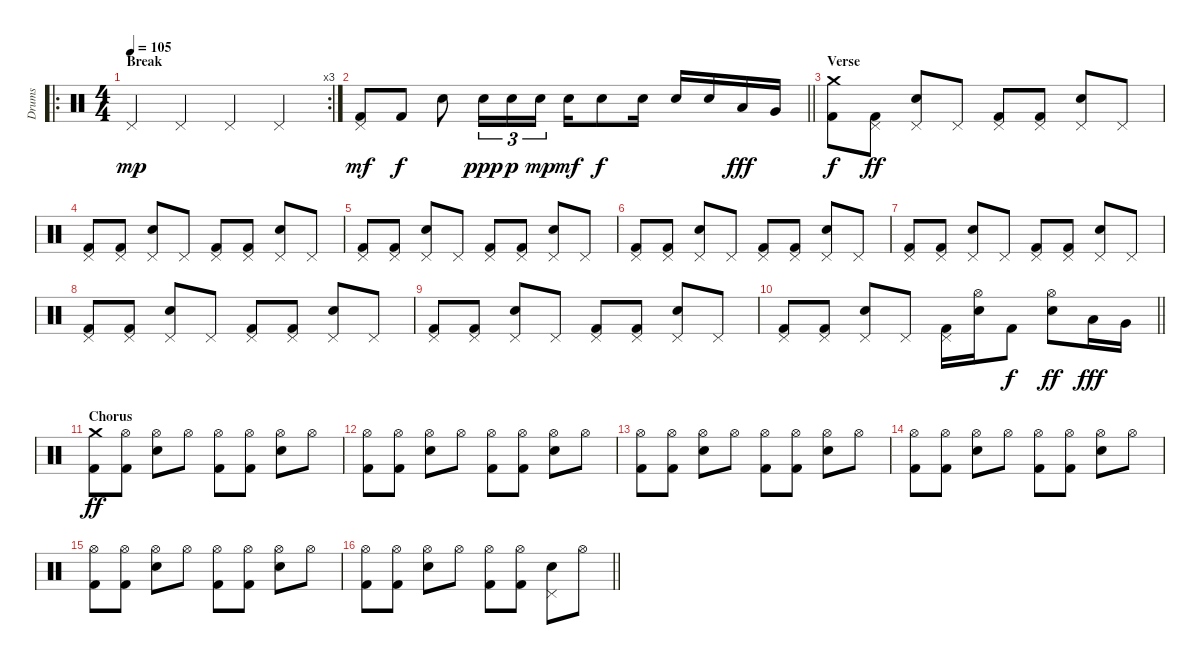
\track ("Drums" "Drums") {instrument percussion}
\staff {score}
\articulation defaults
\ro
\rc 3
\ts (4 4)
\section ("" "Break")
\tempo 105
\clef neutral
\ks c "Pedal Hi-Hat (hit)".4{dy mp} "Pedal Hi-Hat (hit)".4 "Pedal Hi-Hat (hit)".4 "Pedal Hi-Hat (hit)".4
|
\barLineRight lightlight
("Pedal Hi-Hat (hit)" "Kick (hit) 2").8{dy mf} "Kick (hit) 2".8{dy f} "Electric Snare (hit)".8 "Electric Snare (hit)".16{tu (3 2) dy ppp} "Electric Snare (hit)".16{tu (3 2) dy p} "Electric Snare (hit)".16{tu (3 2) dy mp} "Electric Snare (hit)".16{dy mf} "Electric Snare (hit)".8{dy f} "Electric Snare (hit)".16 "Electric Snare (hit)".16 "Electric Snare (hit)".16 "Low Tom (hit)".16{dy fff} "Very Low Tom (hit)".16 |
\section ("" "Verse")
("Crash medium (hit)" "Kick (hit) 2").8{dy f} ("Pedal Hi-Hat (hit)" "Kick (hit) 2").8{dy ff} ("Pedal Hi-Hat (hit)" "Electric Snare (hit)").8 "Pedal Hi-Hat (hit)".8 ("Pedal Hi-Hat (hit)" "Kick (hit) 2").8 ("Pedal Hi-Hat (hit)" "Kick (hit) 2").8 ("Pedal Hi-Hat (hit)" "Electric Snare (hit)").8 "Pedal Hi-Hat (hit)".8 |
("Pedal Hi-Hat (hit)" "Kick (hit) 2").8 ("Pedal Hi-Hat (hit)" "Kick (hit) 2").8 ("Pedal Hi-Hat (hit)" "Electric Snare (hit)").8 "Pedal Hi-Hat (hit)".8 ("Pedal Hi-Hat (hit)" "Kick (hit) 2").8 ("Pedal Hi-Hat (hit)" "Kick (hit) 2").8 ("Pedal Hi-Hat (hit)" "Electric Snare (hit)").8 "Pedal Hi-Hat (hit)".8 |
("Pedal Hi-Hat (hit)" "Kick (hit) 2").8 ("Pedal Hi-Hat (hit)" "Kick (hit) 2").8 ("Pedal Hi-Hat (hit)" "Electric Snare (hit)").8 "Pedal Hi-Hat (hit)".8 ("Pedal Hi-Hat (hit)" "Kick (hit) 2").8 ("Pedal Hi-Hat (hit)" "Kick (hit) 2").8 ("Pedal Hi-Hat (hit)" "Electric Snare (hit)").8 "Pedal Hi-Hat (hit)".8 |
("Pedal Hi-Hat (hit)" "Kick (hit) 2").8 ("Pedal Hi-Hat (hit)" "Kick (hit) 2").8 ("Pedal Hi-Hat (hit)" "Electric Snare (hit)").8 "Pedal Hi-Hat (hit)".8 ("Pedal Hi-Hat (hit)" "Kick (hit) 2").8 ("Pedal Hi-Hat (hit)" "Kick (hit) 2").8 ("Pedal Hi-Hat (hit)" "Electric Snare (hit)").8 "Pedal Hi-Hat (hit)".8 |
("Pedal Hi-Hat (hit)" "Kick (hit) 2").8 ("Pedal Hi-Hat (hit)" "Kick (hit) 2").8 ("Pedal Hi-Hat (hit)" "Electric Snare (hit)").8 "Pedal Hi-Hat (hit)".8 ("Pedal Hi-Hat (hit)" "Kick (hit) 2").8 ("Pedal Hi-Hat (hit)" "Kick (hit) 2").8 ("Pedal Hi-Hat (hit)" "Electric Snare (hit)").8 "Pedal Hi-Hat (hit)".8 |
("Pedal Hi-Hat (hit)" "Kick (hit) 2").8 ("Pedal Hi-Hat (hit)" "Kick (hit) 2").8 ("Pedal Hi-Hat (hit)" "Electric Snare (hit)").8 "Pedal Hi-Hat (hit)".8 ("Pedal Hi-Hat (hit)" "Kick (hit) 2").8 ("Pedal Hi-Hat (hit)" "Kick (hit) 2").8 ("Pedal Hi-Hat (hit)" "Electric Snare (hit)").8 "Pedal Hi-Hat (hit)".8 |
("Pedal Hi-Hat (hit)" "Kick (hit) 2").8 ("Pedal Hi-Hat (hit)" "Kick (hit) 2").8 ("Pedal Hi-Hat (hit)" "Electric Snare (hit)").8 "Pedal Hi-Hat (hit)".8 ("Pedal Hi-Hat (hit)" "Kick (hit) 2").8 ("Pedal Hi-Hat (hit)" "Kick (hit) 2").8 ("Pedal Hi-Hat (hit)" "Electric Snare (hit)").8 "Pedal Hi-Hat (hit)".8 |
\barLineRight lightlight
("Pedal Hi-Hat (hit)" "Kick (hit) 2").8 ("Pedal Hi-Hat (hit)" "Kick (hit) 2").8 ("Pedal Hi-Hat (hit)" "Electric Snare (hit)").8 "Pedal Hi-Hat (hit)".8 ("Pedal Hi-Hat (hit)" "Kick (hit) 2").16 ("Hi-Hat (open)" "Electric Snare (hit)").16 "Kick (hit) 2".8{dy f} ("Hi-Hat (open)" "Electric Snare (hit)").8{dy ff} "Low Tom (hit)".16{dy fff} "Very Low Tom (hit)".16 |
\section ("" "Chorus")
("Crash medium (hit)" "Kick (hit) 2").8{dy ff} ("Hi-Hat (open)" "Kick (hit) 2").8 ("Hi-Hat (open)" "Electric Snare (hit)").8 "Hi-Hat (open)".8 ("Hi-Hat (open)" "Kick (hit) 2").8 ("Hi-Hat (open)" "Kick (hit) 2").8 ("Hi-Hat (open)" "Electric Snare (hit)").8 "Hi-Hat (open)".8 |
("Hi-Hat (open)" "Kick (hit) 2").8 ("Hi-Hat (open)" "Kick (hit) 2").8 ("Hi-Hat (open)" "Electric Snare (hit)").8 "Hi-Hat (open)".8 ("Hi-Hat (open)" "Kick (hit) 2").8 ("Hi-Hat (open)" "Kick (hit) 2").8 ("Hi-Hat (open)" "Electric Snare (hit)").8 "Hi-Hat (open)".8 |
("Hi-Hat (open)" "Kick (hit) 2").8 ("Hi-Hat (open)" "Kick (hit) 2").8 ("Hi-Hat (open)" "Electric Snare (hit)").8 "Hi-Hat (open)".8 ("Hi-Hat (open)" "Kick (hit) 2").8 ("Hi-Hat (open)" "Kick (hit) 2").8 ("Hi-Hat (open)" "Electric Snare (hit)").8 "Hi-Hat (open)".8 |
("Hi-Hat (open)" "Kick (hit) 2").8 ("Hi-Hat (open)" "Kick (hit) 2").8 ("Hi-Hat (open)" "Electric Snare (hit)").8 "Hi-Hat (open)".8 ("Hi-Hat (open)" "Kick (hit) 2").8 ("Hi-Hat (open)" "Kick (hit) 2").8 ("Hi-Hat (open)" "Electric Snare (hit)").8 "Hi-Hat (open)".8 |
("Hi-Hat (open)" "Kick (hit) 2").8 ("Hi-Hat (open)" "Kick (hit) 2").8 ("Hi-Hat (open)" "Electric Snare (hit)").8 "Hi-Hat (open)".8 ("Hi-Hat (open)" "Kick (hit) 2").8 ("Hi-Hat (open)" "Kick (hit) 2").8 ("Hi-Hat (open)" "Electric Snare (hit)").8 "Hi-Hat (open)".8 |
\barLineRight lightlight
("Hi-Hat (open)" "Kick (hit) 2").8 ("Hi-Hat (open)" "Kick (hit) 2").8 ("Hi-Hat (open)" "Electric Snare (hit)").8 "Hi-Hat (open)".8 ("Hi-Hat (open)" "Kick (hit) 2").8 ("Hi-Hat (open)" "Kick (hit) 2").8 ("Pedal Hi-Hat (hit)" "Electric Snare (hit)").8 "Hi-Hat (open)".8
